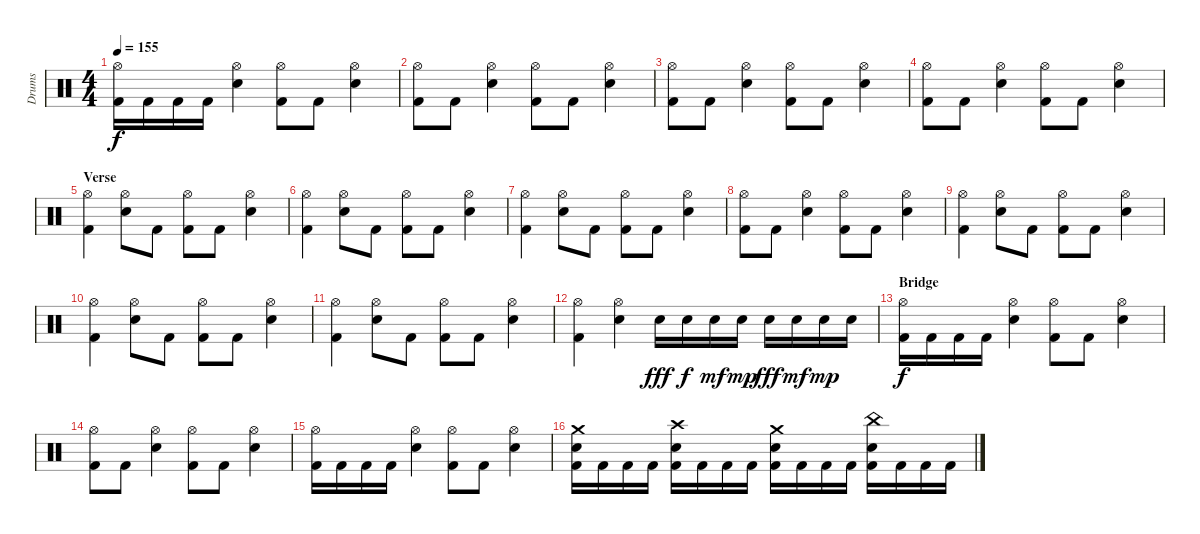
\track ("Drums" "Drums") {instrument percussion}
\staff {score}
\articulation defaults
\ts (4 4)
\tempo 155
\clef neutral
\ks c
("Hi-Hat (open)" "Kick (hit) 2").16{dy f} "Kick (hit) 2".16 "Kick (hit) 2".16 "Kick (hit) 2".16 ("Hi-Hat (open)" "Snare (hit) 2").4 ("Hi-Hat (open)" "Kick (hit) 2").8 "Kick (hit) 2".8 ("Hi-Hat (open)" "Snare (hit) 2").4 |
("Hi-Hat (open)" "Kick (hit) 2").8 "Kick (hit) 2".8 ("Hi-Hat (open)" "Snare (hit) 2").4 ("Hi-Hat (open)" "Kick (hit) 2").8 "Kick (hit) 2".8 ("Hi-Hat (open)" "Snare (hit) 2").4 |
("Hi-Hat (open)" "Kick (hit) 2").8 "Kick (hit) 2".8 ("Hi-Hat (open)" "Snare (hit) 2").4 ("Hi-Hat (open)" "Kick (hit) 2").8 "Kick (hit) 2".8 ("Hi-Hat (open)" "Snare (hit) 2").4 |
("Hi-Hat (open)" "Kick (hit) 2").8 "Kick (hit) 2".8 ("Hi-Hat (open)" "Snare (hit) 2").4 ("Hi-Hat (open)" "Kick (hit) 2").8 "Kick (hit) 2".8 ("Hi-Hat (open)" "Snare (hit) 2").4 |
\section ("" "Verse")
("Hi-Hat (open)" "Kick (hit) 2").4 ("Hi-Hat (open)" "Snare (hit) 2").8 "Kick (hit) 2".8 ("Hi-Hat (open)" "Kick (hit) 2").8 "Kick (hit) 2".8 ("Hi-Hat (open)" "Snare (hit) 2").4 |
("Hi-Hat (open)" "Kick (hit) 2").4 ("Hi-Hat (open)" "Snare (hit) 2").8 "Kick (hit) 2".8 ("Hi-Hat (open)" "Kick (hit) 2").8 "Kick (hit) 2".8 ("Hi-Hat (open)" "Snare (hit) 2").4 |
("Hi-Hat (open)" "Kick (hit) 2").4 ("Hi-Hat (open)" "Snare (hit) 2").8 "Kick (hit) 2".8 ("Hi-Hat (open)" "Kick (hit) 2").8 "Kick (hit) 2".8 ("Hi-Hat (open)" "Snare (hit) 2").4 |
("Hi-Hat (open)" "Kick (hit) 2").8 "Kick (hit) 2".8 ("Hi-Hat (open)" "Snare (hit) 2").4 ("Hi-Hat (open)" "Kick (hit) 2").8 "Kick (hit) 2".8 ("Hi-Hat (open)" "Snare (hit) 2").4 |
("Hi-Hat (open)" "Kick (hit) 2").4 ("Hi-Hat (open)" "Snare (hit) 2").8 "Kick (hit) 2".8 ("Hi-Hat (open)" "Kick (hit) 2").8 "Kick (hit) 2".8 ("Hi-Hat (open)" "Snare (hit) 2").4 |
("Hi-Hat (open)" "Kick (hit) 2").4 ("Hi-Hat (open)" "Snare (hit) 2").8 "Kick (hit) 2".8 ("Hi-Hat (open)" "Kick (hit) 2").8 "Kick (hit) 2".8 ("Hi-Hat (open)" "Snare (hit) 2").4 |
("Hi-Hat (open)" "Kick (hit) 2").4 ("Hi-Hat (open)" "Snare (hit) 2").8 "Kick (hit) 2".8 ("Hi-Hat (open)" "Kick (hit) 2").8 "Kick (hit) 2".8 ("Hi-Hat (open)" "Snare (hit) 2").4 |
("Hi-Hat (open)" "Kick (hit) 2").4 ("Hi-Hat (open)" "Snare (hit) 2").4 "Snare (hit) 2".16{dy fff} "Snare (hit) 2".16{dy f} "Snare (hit) 2".16{dy mf} "Snare (hit) 2".16{dy mp} "Snare (hit) 2".16{dy fff} "Snare (hit) 2".16{dy mf} "Snare (hit) 2".16{dy mp} "Snare (hit) 2".16 |
\section ("" "Bridge")
("Hi-Hat (open)" "Kick (hit) 2").16{dy f} "Kick (hit) 2".16 "Kick (hit) 2".16 "Kick (hit) 2".16 ("Hi-Hat (open)" "Snare (hit) 2").4 ("Hi-Hat (open)" "Kick (hit) 2").8 "Kick (hit) 2".8 ("Hi-Hat (open)" "Snare (hit) 2").4 |
("Hi-Hat (open)" "Kick (hit) 2").8 "Kick (hit) 2".8 ("Hi-Hat (open)" "Snare (hit) 2").4 ("Hi-Hat (open)" "Kick (hit) 2").8 "Kick (hit) 2".8 ("Hi-Hat (open)" "Snare (hit) 2").4 |
("Hi-Hat (open)" "Kick (hit) 2").16 "Kick (hit) 2".16 "Kick (hit) 2".16 "Kick (hit) 2".16 ("Hi-Hat (open)" "Snare (hit) 2").4 ("Hi-Hat (open)" "Kick (hit) 2").8 "Kick (hit) 2".8 ("Hi-Hat (open)" "Snare (hit) 2").4 |
("Crash medium (hit)" "Snare (hit) 2" "Kick (hit) 2").16 "Kick (hit) 2".16 "Kick (hit) 2".16 "Kick (hit) 2".16 ("Crash high (hit)" "Snare (hit) 2" "Kick (hit) 2").16 "Kick (hit) 2".16 "Kick (hit) 2".16 "Kick (hit) 2".16 ("Crash medium (hit)" "Snare (hit) 2" "Kick (hit) 2").16 "Kick (hit) 2".16 "Kick (hit) 2".16 "Kick (hit) 2".16 ("China (hit)" "Snare (hit) 2" "Kick (hit) 2").16 "Kick (hit) 2".16 "Kick (hit) 2".16 "Kick (hit) 2".16
